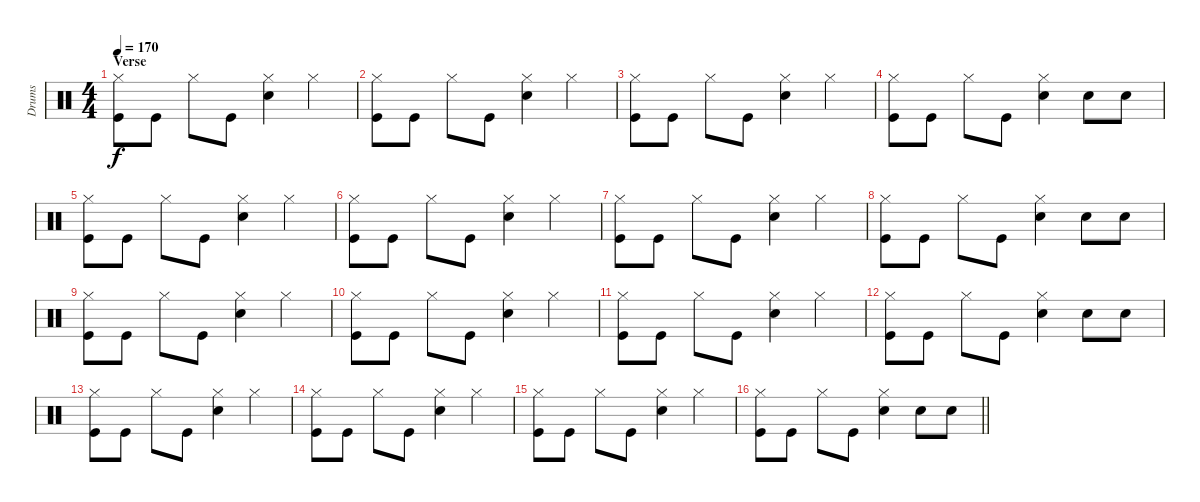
\track ("Drums" "Drums") {instrument percussion}
\staff {score}
\articulation defaults
\ts (4 4)
\section ("" "Verse")
\tempo 170
\clef neutral
\ks c
("Hi-Hat (closed)" "Kick (hit)").8{dy f} "Kick (hit)".8 "Hi-Hat (closed)".8 "Kick (hit)".8 ("Hi-Hat (closed)" "Snare (hit) 2").4 "Hi-Hat (closed)".4 |
("Hi-Hat (closed)" "Kick (hit)").8 "Kick (hit)".8 "Hi-Hat (closed)".8 "Kick (hit)".8 ("Hi-Hat (closed)" "Snare (hit) 2").4 "Hi-Hat (closed)".4 |
("Hi-Hat (closed)" "Kick (hit)").8 "Kick (hit)".8 "Hi-Hat (closed)".8 "Kick (hit)".8 ("Hi-Hat (closed)" "Snare (hit) 2").4 "Hi-Hat (closed)".4 |
("Hi-Hat (closed)" "Kick (hit)").8 "Kick (hit)".8 "Hi-Hat (closed)".8 "Kick (hit)".8 ("Hi-Hat (closed)" "Snare (hit) 2").4 "Snare (hit) 2".8 "Snare (hit) 2".8 |
("Hi-Hat (closed)" "Kick (hit)").8 "Kick (hit)".8 "Hi-Hat (closed)".8 "Kick (hit)".8 ("Hi-Hat (closed)" "Snare (hit) 2").4 "Hi-Hat (closed)".4 |
("Hi-Hat (closed)" "Kick (hit)").8 "Kick (hit)".8 "Hi-Hat (closed)".8 "Kick (hit)".8 ("Hi-Hat (closed)" "Snare (hit) 2").4 "Hi-Hat (closed)".4 |
("Hi-Hat (closed)" "Kick (hit)").8 "Kick (hit)".8 "Hi-Hat (closed)".8 "Kick (hit)".8 ("Hi-Hat (closed)" "Snare (hit) 2").4 "Hi-Hat (closed)".4 |
("Hi-Hat (closed)" "Kick (hit)").8 "Kick (hit)".8 "Hi-Hat (closed)".8 "Kick (hit)".8 ("Hi-Hat (closed)" "Snare (hit) 2").4 "Snare (hit) 2".8 "Snare (hit) 2".8 |
("Hi-Hat (closed)" "Kick (hit)").8 "Kick (hit)".8 "Hi-Hat (closed)".8 "Kick (hit)".8 ("Hi-Hat (closed)" "Snare (hit) 2").4 "Hi-Hat (closed)".4 |
("Hi-Hat (closed)" "Kick (hit)").8 "Kick (hit)".8 "Hi-Hat (closed)".8 "Kick (hit)".8 ("Hi-Hat (closed)" "Snare (hit) 2").4 "Hi-Hat (closed)".4 |
("Hi-Hat (closed)" "Kick (hit)").8 "Kick (hit)".8 "Hi-Hat (closed)".8 "Kick (hit)".8 ("Hi-Hat (closed)" "Snare (hit) 2").4 "Hi-Hat (closed)".4 |
("Hi-Hat (closed)" "Kick (hit)").8 "Kick (hit)".8 "Hi-Hat (closed)".8 "Kick (hit)".8 ("Hi-Hat (closed)" "Snare (hit) 2").4 "Snare (hit) 2".8 "Snare (hit) 2".8 |
("Hi-Hat (closed)" "Kick (hit)").8 "Kick (hit)".8 "Hi-Hat (closed)".8 "Kick (hit)".8 ("Hi-Hat (closed)" "Snare (hit) 2").4 "Hi-Hat (closed)".4 |
("Hi-Hat (closed)" "Kick (hit)").8 "Kick (hit)".8 "Hi-Hat (closed)".8 "Kick (hit)".8 ("Hi-Hat (closed)" "Snare (hit) 2").4 "Hi-Hat (closed)".4 |
("Hi-Hat (closed)" "Kick (hit)").8 "Kick (hit)".8 "Hi-Hat (closed)".8 "Kick (hit)".8 ("Hi-Hat (closed)" "Snare (hit) 2").4 "Hi-Hat (closed)".4 |
\barLineRight lightlight
("Hi-Hat (closed)" "Kick (hit)").8 "Kick (hit)".8 "Hi-Hat (closed)".8 "Kick (hit)".8 ("Hi-Hat (closed)" "Snare (hit) 2").4 "Snare (hit) 2".8 "Snare (hit) 2".8
